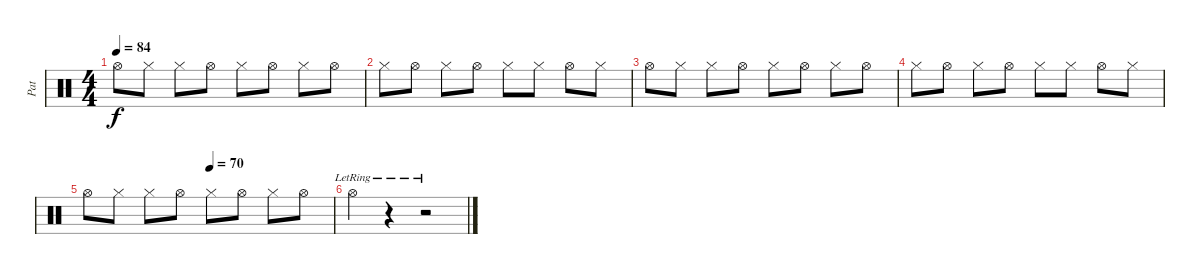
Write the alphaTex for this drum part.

\track ("Pat" "Pat") {instrument percussion}
\staff {score}
\articulation defaults
\ts (4 4)
\tempo 84
\clef neutral
\ks c "Hi-Hat (open)".8{dy f} "Hi-Hat (closed)".8 "Hi-Hat (closed)".8 "Hi-Hat (open)".8 "Hi-Hat (closed)".8 "Hi-Hat (open)".8 "Hi-Hat (closed)".8 "Hi-Hat (open)".8
|
"Hi-Hat (closed)".8 "Hi-Hat (open)".8 "Hi-Hat (closed)".8 "Hi-Hat (open)".8 "Hi-Hat (closed)".8 "Hi-Hat (closed)".8 "Hi-Hat (open)".8 "Hi-Hat (closed)".8 |
"Hi-Hat (open)".8 "Hi-Hat (closed)".8 "Hi-Hat (closed)".8 "Hi-Hat (open)".8 "Hi-Hat (closed)".8 "Hi-Hat (open)".8 "Hi-Hat (closed)".8 "Hi-Hat (open)".8 |
"Hi-Hat (closed)".8 "Hi-Hat (open)".8 "Hi-Hat (closed)".8 "Hi-Hat (open)".8 "Hi-Hat (closed)".8 "Hi-Hat (closed)".8 "Hi-Hat (open)".8 "Hi-Hat (closed)".8 |
\tempo (70 0.5)
"Hi-Hat (open)".8 "Hi-Hat (closed)".8 "Hi-Hat (closed)".8 "Hi-Hat (open)".8 "Hi-Hat (closed)".8 "Hi-Hat (open)".8 "Hi-Hat (closed)".8 "Hi-Hat (open)".8 |
"Hi-Hat (open)"{lr}.4 r.4 r.2
